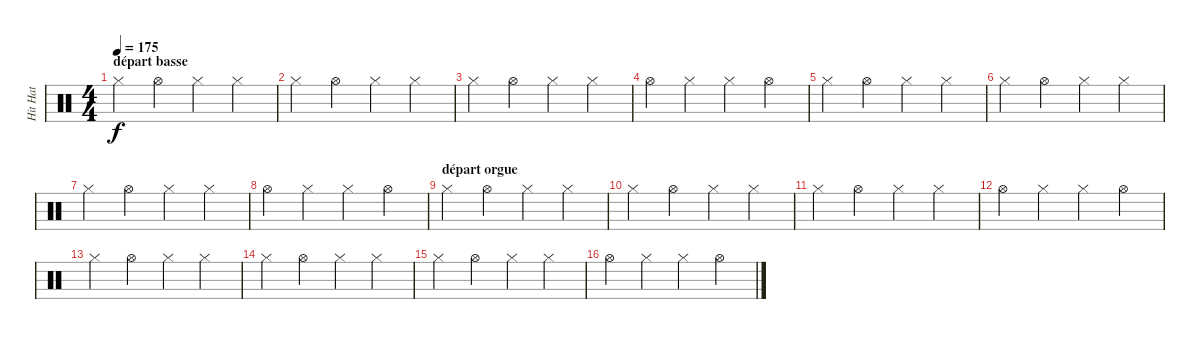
\track ("Hit Hat" "Hit Hat") {instrument percussion}
\staff {score}
\articulation defaults
\ts (4 4)
\section ("" "départ basse")
\tempo 175
\clef neutral
\ks c "Hi-Hat (closed)".4{dy f} "Hi-Hat (open)".4 "Hi-Hat (closed)".4 "Hi-Hat (closed)".4
|
"Hi-Hat (closed)".4 "Hi-Hat (open)".4 "Hi-Hat (closed)".4 "Hi-Hat (closed)".4 |
"Hi-Hat (closed)".4 "Hi-Hat (open)".4 "Hi-Hat (closed)".4 "Hi-Hat (closed)".4 |
"Hi-Hat (open)".4 "Hi-Hat (closed)".4 "Hi-Hat (closed)".4 "Hi-Hat (open)".4 |
"Hi-Hat (closed)".4 "Hi-Hat (open)".4 "Hi-Hat (closed)".4 "Hi-Hat (closed)".4 |
"Hi-Hat (closed)".4 "Hi-Hat (open)".4 "Hi-Hat (closed)".4 "Hi-Hat (closed)".4 |
"Hi-Hat (closed)".4 "Hi-Hat (open)".4 "Hi-Hat (closed)".4 "Hi-Hat (closed)".4 |
"Hi-Hat (open)".4 "Hi-Hat (closed)".4 "Hi-Hat (closed)".4 "Hi-Hat (open)".4 |
\section ("" "départ orgue")
"Hi-Hat (closed)".4 "Hi-Hat (open)".4 "Hi-Hat (closed)".4 "Hi-Hat (closed)".4 |
"Hi-Hat (closed)".4 "Hi-Hat (open)".4 "Hi-Hat (closed)".4 "Hi-Hat (closed)".4 |
"Hi-Hat (closed)".4 "Hi-Hat (open)".4 "Hi-Hat (closed)".4 "Hi-Hat (closed)".4 |
"Hi-Hat (open)".4 "Hi-Hat (closed)".4 "Hi-Hat (closed)".4 "Hi-Hat (open)".4 |
"Hi-Hat (closed)".4 "Hi-Hat (open)".4 "Hi-Hat (closed)".4 "Hi-Hat (closed)".4 |
"Hi-Hat (closed)".4 "Hi-Hat (open)".4 "Hi-Hat (closed)".4 "Hi-Hat (closed)".4 |
"Hi-Hat (closed)".4 "Hi-Hat (open)".4 "Hi-Hat (closed)".4 "Hi-Hat (closed)".4 |
"Hi-Hat (open)".4 "Hi-Hat (closed)".4 "Hi-Hat (closed)".4 "Hi-Hat (open)".4
